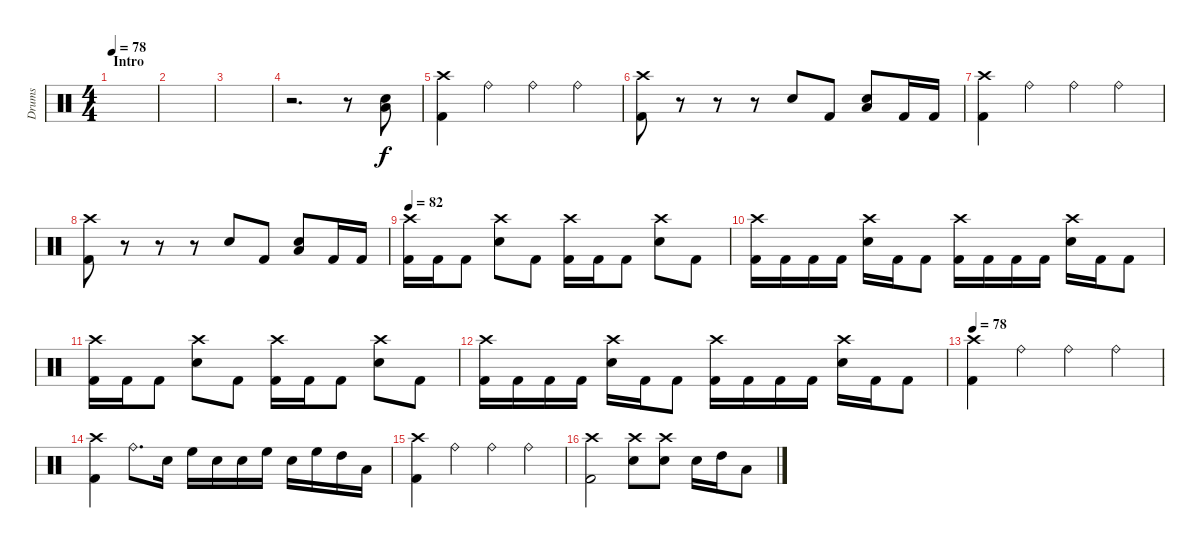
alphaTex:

\track ("Drums" "Drums") {instrument percussion}
\staff {score}
\articulation defaults
\ts (4 4)
\section ("" "Intro")
\tempo 78
\clef neutral
\ks c
|
|
|
r.2{d} r.8 ("Electric Snare (hit)" "Low Floor Tom (hit)").8 |
("Crash high (hit)" "Kick (hit) 2").4 "Ride (bell)".4 "Ride (bell)".4 "Ride (bell)".4 |
("Crash high (hit)" "Kick (hit) 2").8 r.8 r.8 r.8 "Electric Snare (hit)".8 "Kick (hit) 2".8 ("Electric Snare (hit)" "Low Floor Tom (hit)").8 "Kick (hit) 2".16 "Kick (hit) 2".16 |
("Crash high (hit)" "Kick (hit) 2").4 "Ride (bell)".4 "Ride (bell)".4 "Ride (bell)".4 |
("Crash high (hit)" "Kick (hit) 2").8 r.8 r.8 r.8 "Electric Snare (hit)".8 "Kick (hit) 2".8 ("Electric Snare (hit)" "Low Floor Tom (hit)").8 "Kick (hit) 2".16 "Kick (hit) 2".16 |
\tempo 82
("Crash high (hit)" "Kick (hit) 2").16 "Kick (hit) 2".16 "Kick (hit) 2".8 ("Crash high (hit)" "Electric Snare (hit)").8 "Kick (hit) 2".8 ("Crash high (hit)" "Kick (hit) 2").16 "Kick (hit) 2".16 "Kick (hit) 2".8 ("Crash high (hit)" "Electric Snare (hit)").8 "Kick (hit) 2".8 |
("Crash high (hit)" "Kick (hit) 2").16 "Kick (hit) 2".16 "Kick (hit) 2".16 "Kick (hit) 2".16 ("Crash high (hit)" "Electric Snare (hit)").16 "Kick (hit) 2".16 "Kick (hit) 2".8 ("Crash high (hit)" "Kick (hit) 2").16 "Kick (hit) 2".16 "Kick (hit) 2".16 "Kick (hit) 2".16 ("Crash high (hit)" "Electric Snare (hit)").16 "Kick (hit) 2".16 "Kick (hit) 2".8 |
("Crash high (hit)" "Kick (hit) 2").16 "Kick (hit) 2".16 "Kick (hit) 2".8 ("Crash high (hit)" "Electric Snare (hit)").8 "Kick (hit) 2".8 ("Crash high (hit)" "Kick (hit) 2").16 "Kick (hit) 2".16 "Kick (hit) 2".8 ("Crash high (hit)" "Electric Snare (hit)").8 "Kick (hit) 2".8 |
("Crash high (hit)" "Kick (hit) 2").16 "Kick (hit) 2".16 "Kick (hit) 2".16 "Kick (hit) 2".16 ("Crash high (hit)" "Electric Snare (hit)").16 "Kick (hit) 2".16 "Kick (hit) 2".8 ("Crash high (hit)" "Kick (hit) 2").16 "Kick (hit) 2".16 "Kick (hit) 2".16 "Kick (hit) 2".16 ("Crash high (hit)" "Electric Snare (hit)").16 "Kick (hit) 2".16 "Kick (hit) 2".8 |
\tempo 78
("Crash high (hit)" "Kick (hit) 2").4 "Ride (bell)".4 "Ride (bell)".4 "Ride (bell)".4 |
("Crash high (hit)" "Kick (hit) 2").4 "Ride (bell)".8{d} "Electric Snare (hit)".16 "High Floor Tom (hit)".16 "Electric Snare (hit)".16 "Electric Snare (hit)".16 "High Floor Tom (hit)".16 "Electric Snare (hit)".16 "High Floor Tom (hit)".16 "High Tom (hit)".16 "Low Floor Tom (hit)".16 |
("Crash high (hit)" "Kick (hit) 2").4 "Ride (bell)".4 "Ride (bell)".4 "Ride (bell)".4 |
("Crash high (hit)" "Kick (hit) 2").2 ("Crash high (hit)" "Electric Snare (hit)").8 ("Crash high (hit)" "Electric Snare (hit)").8 "Electric Snare (hit)".16 "High Tom (hit)".16 "Low Floor Tom (hit)".8
